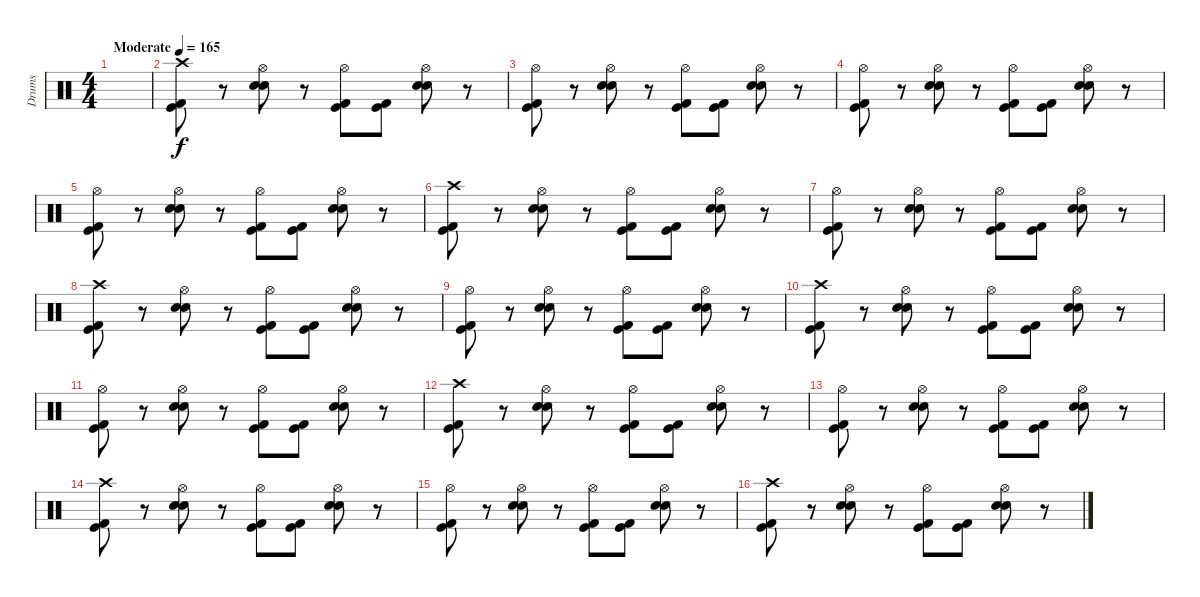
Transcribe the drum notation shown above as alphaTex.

\track ("Drums" "Drums") {instrument percussion}
\staff {score}
\articulation defaults
\ts (4 4)
\tempo (165 "Moderate")
\clef neutral
\ks c
|
("Crash high (hit)" "Kick (hit) 2" "Kick (hit)").8 r.8 ("Hi-Hat (open)" "Electric Snare (hit)" "Snare (hit) 2").8 r.8 ("Hi-Hat (open)" "Kick (hit) 2" "Kick (hit)").8 ("Kick (hit) 2" "Kick (hit)").8 ("Hi-Hat (open)" "Electric Snare (hit)" "Snare (hit) 2").8 r.8 |
("Hi-Hat (open)" "Kick (hit) 2" "Kick (hit)").8 r.8 ("Hi-Hat (open)" "Electric Snare (hit)" "Snare (hit) 2").8 r.8 ("Hi-Hat (open)" "Kick (hit) 2" "Kick (hit)").8 ("Kick (hit) 2" "Kick (hit)").8 ("Hi-Hat (open)" "Electric Snare (hit)" "Snare (hit) 2").8 r.8 |
("Hi-Hat (open)" "Kick (hit) 2" "Kick (hit)").8 r.8 ("Hi-Hat (open)" "Electric Snare (hit)" "Snare (hit) 2").8 r.8 ("Hi-Hat (open)" "Kick (hit) 2" "Kick (hit)").8 ("Kick (hit) 2" "Kick (hit)").8 ("Hi-Hat (open)" "Electric Snare (hit)" "Snare (hit) 2").8 r.8 |
("Hi-Hat (open)" "Kick (hit) 2" "Kick (hit)").8 r.8 ("Hi-Hat (open)" "Electric Snare (hit)" "Snare (hit) 2").8 r.8 ("Hi-Hat (open)" "Kick (hit) 2" "Kick (hit)").8 ("Kick (hit) 2" "Kick (hit)").8 ("Hi-Hat (open)" "Electric Snare (hit)" "Snare (hit) 2").8 r.8 |
("Crash high (hit)" "Kick (hit) 2" "Kick (hit)").8 r.8 ("Hi-Hat (open)" "Electric Snare (hit)" "Snare (hit) 2").8 r.8 ("Hi-Hat (open)" "Kick (hit) 2" "Kick (hit)").8 ("Kick (hit) 2" "Kick (hit)").8 ("Hi-Hat (open)" "Electric Snare (hit)" "Snare (hit) 2").8 r.8 |
("Hi-Hat (open)" "Kick (hit) 2" "Kick (hit)").8 r.8 ("Hi-Hat (open)" "Electric Snare (hit)" "Snare (hit) 2").8 r.8 ("Hi-Hat (open)" "Kick (hit) 2" "Kick (hit)").8 ("Kick (hit) 2" "Kick (hit)").8 ("Hi-Hat (open)" "Electric Snare (hit)" "Snare (hit) 2").8 r.8 |
("Crash high (hit)" "Kick (hit) 2" "Kick (hit)").8 r.8 ("Hi-Hat (open)" "Electric Snare (hit)" "Snare (hit) 2").8 r.8 ("Hi-Hat (open)" "Kick (hit) 2" "Kick (hit)").8 ("Kick (hit) 2" "Kick (hit)").8 ("Hi-Hat (open)" "Electric Snare (hit)" "Snare (hit) 2").8 r.8 |
("Hi-Hat (open)" "Kick (hit) 2" "Kick (hit)").8 r.8 ("Hi-Hat (open)" "Electric Snare (hit)" "Snare (hit) 2").8 r.8 ("Hi-Hat (open)" "Kick (hit) 2" "Kick (hit)").8 ("Kick (hit) 2" "Kick (hit)").8 ("Hi-Hat (open)" "Electric Snare (hit)" "Snare (hit) 2").8 r.8 |
("Crash high (hit)" "Kick (hit) 2" "Kick (hit)").8 r.8 ("Hi-Hat (open)" "Electric Snare (hit)" "Snare (hit) 2").8 r.8 ("Hi-Hat (open)" "Kick (hit) 2" "Kick (hit)").8 ("Kick (hit) 2" "Kick (hit)").8 ("Hi-Hat (open)" "Electric Snare (hit)" "Snare (hit) 2").8 r.8 |
("Hi-Hat (open)" "Kick (hit) 2" "Kick (hit)").8 r.8 ("Hi-Hat (open)" "Electric Snare (hit)" "Snare (hit) 2").8 r.8 ("Hi-Hat (open)" "Kick (hit) 2" "Kick (hit)").8 ("Kick (hit) 2" "Kick (hit)").8 ("Hi-Hat (open)" "Electric Snare (hit)" "Snare (hit) 2").8 r.8 |
("Crash high (hit)" "Kick (hit) 2" "Kick (hit)").8 r.8 ("Hi-Hat (open)" "Electric Snare (hit)" "Snare (hit) 2").8 r.8 ("Hi-Hat (open)" "Kick (hit) 2" "Kick (hit)").8 ("Kick (hit) 2" "Kick (hit)").8 ("Hi-Hat (open)" "Electric Snare (hit)" "Snare (hit) 2").8 r.8 |
("Hi-Hat (open)" "Kick (hit) 2" "Kick (hit)").8 r.8 ("Hi-Hat (open)" "Electric Snare (hit)" "Snare (hit) 2").8 r.8 ("Hi-Hat (open)" "Kick (hit) 2" "Kick (hit)").8 ("Kick (hit) 2" "Kick (hit)").8 ("Hi-Hat (open)" "Electric Snare (hit)" "Snare (hit) 2").8 r.8 |
("Crash high (hit)" "Kick (hit) 2" "Kick (hit)").8 r.8 ("Hi-Hat (open)" "Electric Snare (hit)" "Snare (hit) 2").8 r.8 ("Hi-Hat (open)" "Kick (hit) 2" "Kick (hit)").8 ("Kick (hit) 2" "Kick (hit)").8 ("Hi-Hat (open)" "Electric Snare (hit)" "Snare (hit) 2").8 r.8 |
("Hi-Hat (open)" "Kick (hit) 2" "Kick (hit)").8 r.8 ("Hi-Hat (open)" "Electric Snare (hit)" "Snare (hit) 2").8 r.8 ("Hi-Hat (open)" "Kick (hit) 2" "Kick (hit)").8 ("Kick (hit) 2" "Kick (hit)").8 ("Hi-Hat (open)" "Electric Snare (hit)" "Snare (hit) 2").8 r.8 |
("Crash high (hit)" "Kick (hit) 2" "Kick (hit)").8 r.8 ("Hi-Hat (open)" "Electric Snare (hit)" "Snare (hit) 2").8 r.8 ("Hi-Hat (open)" "Kick (hit) 2" "Kick (hit)").8 ("Kick (hit) 2" "Kick (hit)").8 ("Hi-Hat (open)" "Electric Snare (hit)" "Snare (hit) 2").8 r.8
